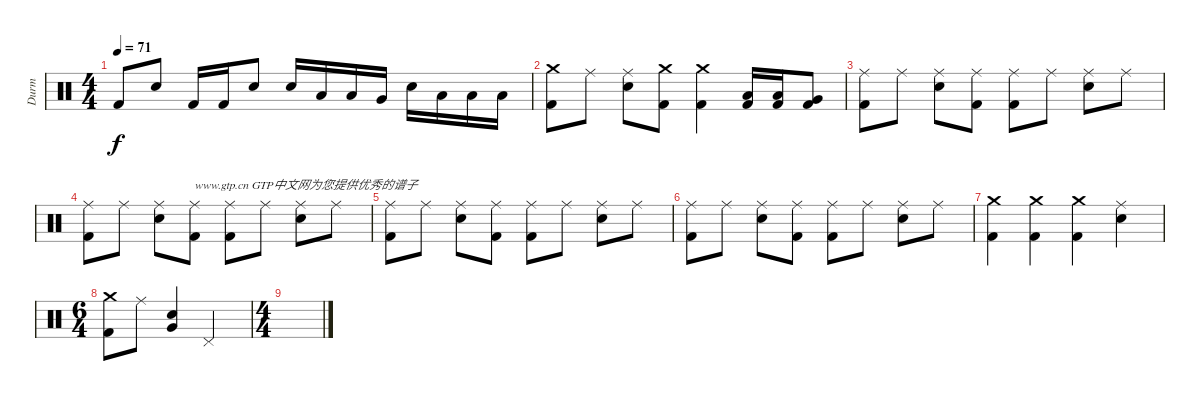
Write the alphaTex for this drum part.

\track ("Durm" "Durm") {instrument percussion}
\staff {score}
\articulation defaults
\ts (4 4)
\tempo 71
\clef neutral
\ks c "Kick (hit) 2".8{dy f} "Electric Snare (hit)".8 "Kick (hit) 2".16 "Kick (hit) 2".16 "Electric Snare (hit)".8 "Electric Snare (hit)".16 "Low Tom (hit)".16 "Low Tom (hit)".16 "Very Low Tom (hit)".16 "Electric Snare (hit)".16 "Low Tom (hit)".16 "Low Tom (hit)".16 "Low Floor Tom (hit)".16
|
("Kick (hit) 2" "Crash medium (hit)").8 "Ride (middle)".8 ("Electric Snare (hit)" "Ride (middle)").8 ("Kick (hit) 2" "Crash medium (hit)").8 ("Kick (hit) 2" "Crash medium (hit)").4 ("Kick (hit) 2" "Low Tom (hit)").16 ("Kick (hit) 2" "Low Tom (hit)").16 ("Kick (hit) 2" "Very Low Tom (hit)").8 |
("Kick (hit) 2" "Ride (middle)").8 "Ride (middle)".8 ("Electric Snare (hit)" "Ride (middle)").8 ("Kick (hit) 2" "Ride (middle)").8 ("Kick (hit) 2" "Ride (middle)").8 "Ride (middle)".8 ("Electric Snare (hit)" "Ride (middle)").8 "Ride (middle)".8 |
("Kick (hit) 2" "Ride (middle)").8 "Ride (middle)".8 ("Electric Snare (hit)" "Ride (middle)").8 ("Kick (hit) 2" "Ride (middle)").8{txt "www.gtp.cn GTP中文网为您提供优秀的谱子"} ("Kick (hit) 2" "Ride (middle)").8 "Ride (middle)".8 ("Electric Snare (hit)" "Ride (middle)").8 "Ride (middle)".8 |
("Kick (hit) 2" "Ride (middle)").8 "Ride (middle)".8 ("Electric Snare (hit)" "Ride (middle)").8 ("Kick (hit) 2" "Ride (middle)").8 ("Kick (hit) 2" "Ride (middle)").8 "Ride (middle)".8 ("Electric Snare (hit)" "Ride (middle)").8 "Ride (middle)".8 |
("Kick (hit) 2" "Ride (middle)").8 "Ride (middle)".8 ("Electric Snare (hit)" "Ride (middle)").8 ("Kick (hit) 2" "Ride (middle)").8 ("Kick (hit) 2" "Ride (middle)").8 "Ride (middle)".8 ("Electric Snare (hit)" "Ride (middle)").8 "Ride (middle)".8 |
("Kick (hit) 2" "Crash medium (hit)").4 ("Kick (hit) 2" "Crash medium (hit)").4 ("Kick (hit) 2" "Crash medium (hit)").4 ("Electric Snare (hit)" "Ride (middle)").4 |
\ts (6 4)
("Kick (hit) 2" "Crash medium (hit)").8 "Ride (middle)".8 ("Snare (hit) 2" "Very Low Tom (hit)").4 "Pedal Hi-Hat (hit)".2 |
\ts (4 4)
